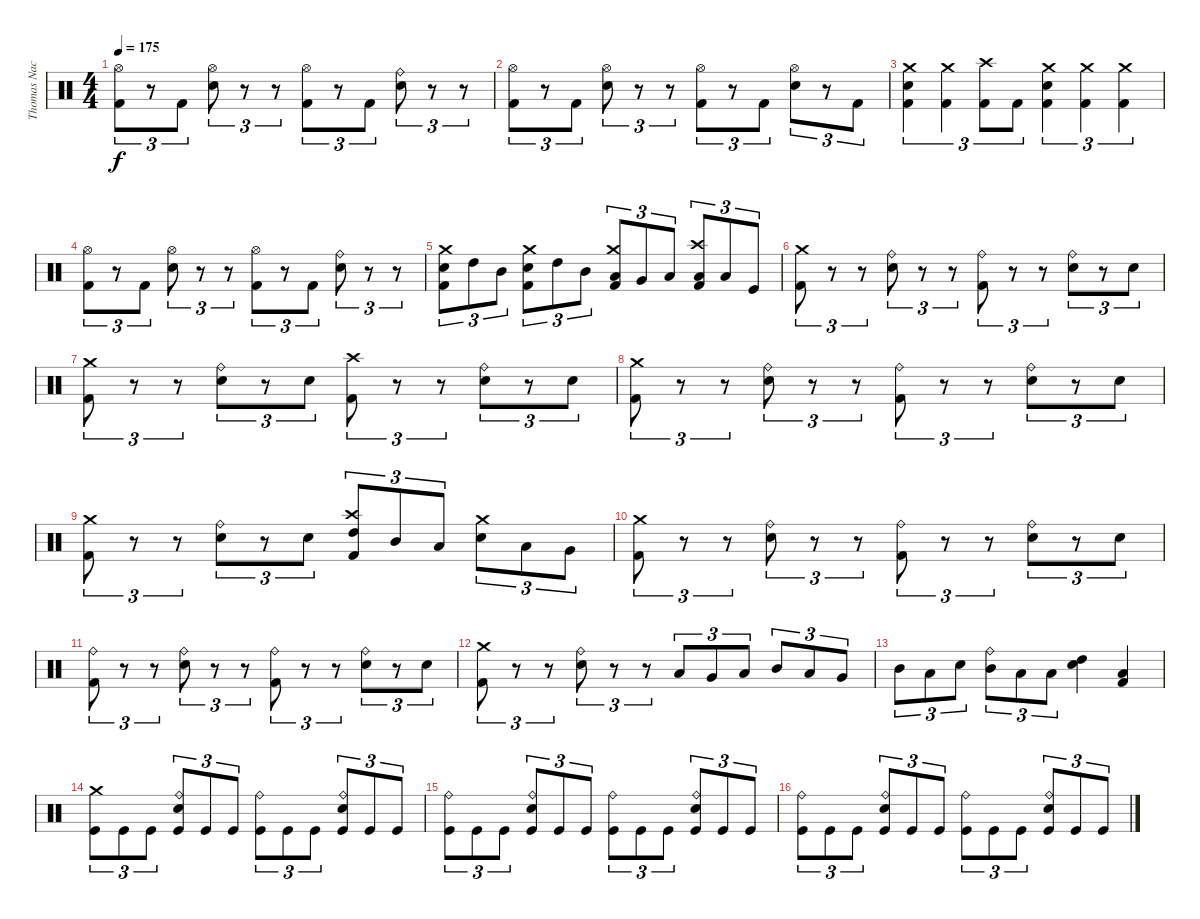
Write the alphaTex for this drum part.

\track ("Thomas Nack" "Thomas Nac") {instrument percussion}
\staff {score}
\articulation defaults
\ts (4 4)
\tempo 175
\clef neutral
\ks c
("Hi-Hat (open)" "Kick (hit) 2").8{tu (3 2) dy f} r.8{tu (3 2)} "Kick (hit) 2".8{tu (3 2)} ("Hi-Hat (open)" "Electric Snare (hit)").8{tu (3 2)} r.8{tu (3 2)} r.8{tu (3 2)} ("Hi-Hat (open)" "Kick (hit) 2").8{tu (3 2)} r.8{tu (3 2)} "Kick (hit) 2".8{tu (3 2)} ("Ride (bell)" "Electric Snare (hit)").8{tu (3 2)} r.8{tu (3 2)} r.8{tu (3 2)} |
("Hi-Hat (open)" "Kick (hit) 2").8{tu (3 2)} r.8{tu (3 2)} "Kick (hit) 2".8{tu (3 2)} ("Hi-Hat (open)" "Electric Snare (hit)").8{tu (3 2)} r.8{tu (3 2)} r.8{tu (3 2)} ("Hi-Hat (open)" "Kick (hit) 2").8{tu (3 2)} r.8{tu (3 2)} "Kick (hit) 2".8{tu (3 2)} ("Hi-Hat (open)" "Electric Snare (hit)").8{tu (3 2)} r.8{tu (3 2)} "Kick (hit) 2".8{tu (3 2)} |
("Crash medium (hit)" "Electric Snare (hit)" "Kick (hit) 2").4{tu (3 2)} ("Crash medium (hit)" "Kick (hit) 2").4{tu (3 2)} ("Crash high (hit)" "Kick (hit) 2").8{tu (3 2)} "Kick (hit) 2".8{tu (3 2)} ("Crash medium (hit)" "Electric Snare (hit)" "Kick (hit) 2").4{tu (3 2)} ("Crash medium (hit)" "Kick (hit) 2").4{tu (3 2)} ("Crash medium (hit)" "Kick (hit) 2").4{tu (3 2)} |
("Hi-Hat (open)" "Kick (hit) 2").8{tu (3 2)} r.8{tu (3 2)} "Kick (hit) 2".8{tu (3 2)} ("Hi-Hat (open)" "Electric Snare (hit)").8{tu (3 2)} r.8{tu (3 2)} r.8{tu (3 2)} ("Hi-Hat (open)" "Kick (hit) 2").8{tu (3 2)} r.8{tu (3 2)} "Kick (hit) 2".8{tu (3 2)} ("Ride (bell)" "Electric Snare (hit)").8{tu (3 2)} r.8{tu (3 2)} r.8{tu (3 2)} |
("Crash medium (hit)" "Electric Snare (hit)" "Kick (hit) 2").8{tu (3 2)} "High Tom (hit)".8{tu (3 2)} "Mid Tom (hit)".8{tu (3 2)} ("Crash medium (hit)" "Electric Snare (hit)" "Kick (hit) 2").8{tu (3 2)} "High Tom (hit)".8{tu (3 2)} "Mid Tom (hit)".8{tu (3 2)} ("Crash medium (hit)" "Low Tom (hit)" "Kick (hit) 2").8{tu (3 2)} "Very Low Tom (hit)".8{tu (3 2)} "Low Floor Tom (hit)".8{tu (3 2)} ("Crash high (hit)" "Low Floor Tom (hit)" "Kick (hit) 2").8{tu (3 2)} "Low Floor Tom (hit)".8{tu (3 2)} "Kick (hit)".8{tu (3 2)} |
("Crash medium (hit)" "Kick (hit) 2").8{tu (3 2)} r.8{tu (3 2)} r.8{tu (3 2)} ("Ride (bell)" "Electric Snare (hit)").8{tu (3 2)} r.8{tu (3 2)} r.8{tu (3 2)} ("Ride (bell)" "Kick (hit) 2").8{tu (3 2)} r.8{tu (3 2)} r.8{tu (3 2)} ("Ride (bell)" "Electric Snare (hit)").8{tu (3 2)} r.8{tu (3 2)} "Electric Snare (hit)".8{tu (3 2)} |
("Crash medium (hit)" "Kick (hit) 2").8{tu (3 2)} r.8{tu (3 2)} r.8{tu (3 2)} ("Ride (bell)" "Electric Snare (hit)").8{tu (3 2)} r.8{tu (3 2)} "Electric Snare (hit)".8{tu (3 2)} ("Crash high (hit)" "Kick (hit) 2").8{tu (3 2)} r.8{tu (3 2)} r.8{tu (3 2)} ("Ride (bell)" "Electric Snare (hit)").8{tu (3 2)} r.8{tu (3 2)} "Electric Snare (hit)".8{tu (3 2)} |
("Crash medium (hit)" "Kick (hit) 2").8{tu (3 2)} r.8{tu (3 2)} r.8{tu (3 2)} ("Ride (bell)" "Electric Snare (hit)").8{tu (3 2)} r.8{tu (3 2)} r.8{tu (3 2)} ("Ride (bell)" "Kick (hit) 2").8{tu (3 2)} r.8{tu (3 2)} r.8{tu (3 2)} ("Ride (bell)" "Electric Snare (hit)").8{tu (3 2)} r.8{tu (3 2)} "Electric Snare (hit)".8{tu (3 2)} |
("Crash medium (hit)" "Kick (hit) 2").8{tu (3 2)} r.8{tu (3 2)} r.8{tu (3 2)} ("Ride (bell)" "Electric Snare (hit)").8{tu (3 2)} r.8{tu (3 2)} "Electric Snare (hit)".8{tu (3 2)} ("Crash high (hit)" "High Tom (hit)" "Kick (hit) 2").8{tu (3 2)} "Mid Tom (hit)".8{tu (3 2)} "Low Tom (hit)".8{tu (3 2)} ("Crash medium (hit)" "Electric Snare (hit)").8{tu (3 2)} "Low Tom (hit)".8{tu (3 2)} "Very Low Tom (hit)".8{tu (3 2)} |
("Crash medium (hit)" "Kick (hit) 2").8{tu (3 2)} r.8{tu (3 2)} r.8{tu (3 2)} ("Ride (bell)" "Electric Snare (hit)").8{tu (3 2)} r.8{tu (3 2)} r.8{tu (3 2)} ("Ride (bell)" "Kick (hit) 2").8{tu (3 2)} r.8{tu (3 2)} r.8{tu (3 2)} ("Ride (bell)" "Electric Snare (hit)").8{tu (3 2)} r.8{tu (3 2)} "Electric Snare (hit)".8{tu (3 2)} |
("Ride (bell)" "Kick (hit) 2").8{tu (3 2)} r.8{tu (3 2)} r.8{tu (3 2)} ("Ride (bell)" "Electric Snare (hit)").8{tu (3 2)} r.8{tu (3 2)} r.8{tu (3 2)} ("Ride (bell)" "Kick (hit) 2").8{tu (3 2)} r.8{tu (3 2)} r.8{tu (3 2)} ("Ride (bell)" "Electric Snare (hit)").8{tu (3 2)} r.8{tu (3 2)} "Electric Snare (hit)".8{tu (3 2)} |
("Crash medium (hit)" "Kick (hit) 2").8{tu (3 2)} r.8{tu (3 2)} r.8{tu (3 2)} ("Ride (bell)" "Electric Snare (hit)").8{tu (3 2)} r.8{tu (3 2)} r.8{tu (3 2)} "Low Tom (hit)".8{tu (3 2)} "Very Low Tom (hit)".8{tu (3 2)} "Low Floor Tom (hit)".8{tu (3 2)} "Mid Tom (hit)".8{tu (3 2)} "Low Tom (hit)".8{tu (3 2)} "Very Low Tom (hit)".8{tu (3 2)} |
"Mid Tom (hit)".8{tu (3 2)} "Low Tom (hit)".8{tu (3 2)} "Electric Snare (hit)".8{tu (3 2)} ("Ride (bell)" "Mid Tom (hit)").8{tu (3 2)} "Low Tom (hit)".8{tu (3 2)} "Low Tom (hit)".8{tu (3 2)} ("Electric Snare (hit)" "High Tom (hit)").4 ("Low Tom (hit)" "Kick (hit) 2").4 |
("Crash medium (hit)" "Kick (hit)").8{tu (3 2)} "Kick (hit)".8{tu (3 2)} "Kick (hit)".8{tu (3 2)} ("Ride (bell)" "Electric Snare (hit)" "Kick (hit)").8{tu (3 2)} "Kick (hit)".8{tu (3 2)} "Kick (hit)".8{tu (3 2)} ("Ride (bell)" "Kick (hit)").8{tu (3 2)} "Kick (hit)".8{tu (3 2)} "Kick (hit)".8{tu (3 2)} ("Ride (bell)" "Electric Snare (hit)" "Kick (hit)").8{tu (3 2)} "Kick (hit)".8{tu (3 2)} "Kick (hit)".8{tu (3 2)} |
("Ride (bell)" "Kick (hit)").8{tu (3 2)} "Kick (hit)".8{tu (3 2)} "Kick (hit)".8{tu (3 2)} ("Ride (bell)" "Electric Snare (hit)" "Kick (hit)").8{tu (3 2)} "Kick (hit)".8{tu (3 2)} "Kick (hit)".8{tu (3 2)} ("Ride (bell)" "Kick (hit)").8{tu (3 2)} "Kick (hit)".8{tu (3 2)} "Kick (hit)".8{tu (3 2)} ("Ride (bell)" "Electric Snare (hit)" "Kick (hit)").8{tu (3 2)} "Kick (hit)".8{tu (3 2)} "Kick (hit)".8{tu (3 2)} |
("Ride (bell)" "Kick (hit)").8{tu (3 2)} "Kick (hit)".8{tu (3 2)} "Kick (hit)".8{tu (3 2)} ("Ride (bell)" "Electric Snare (hit)" "Kick (hit)").8{tu (3 2)} "Kick (hit)".8{tu (3 2)} "Kick (hit)".8{tu (3 2)} ("Ride (bell)" "Kick (hit)").8{tu (3 2)} "Kick (hit)".8{tu (3 2)} "Kick (hit)".8{tu (3 2)} ("Ride (bell)" "Electric Snare (hit)" "Kick (hit)").8{tu (3 2)} "Kick (hit)".8{tu (3 2)} "Kick (hit)".8{tu (3 2)}
